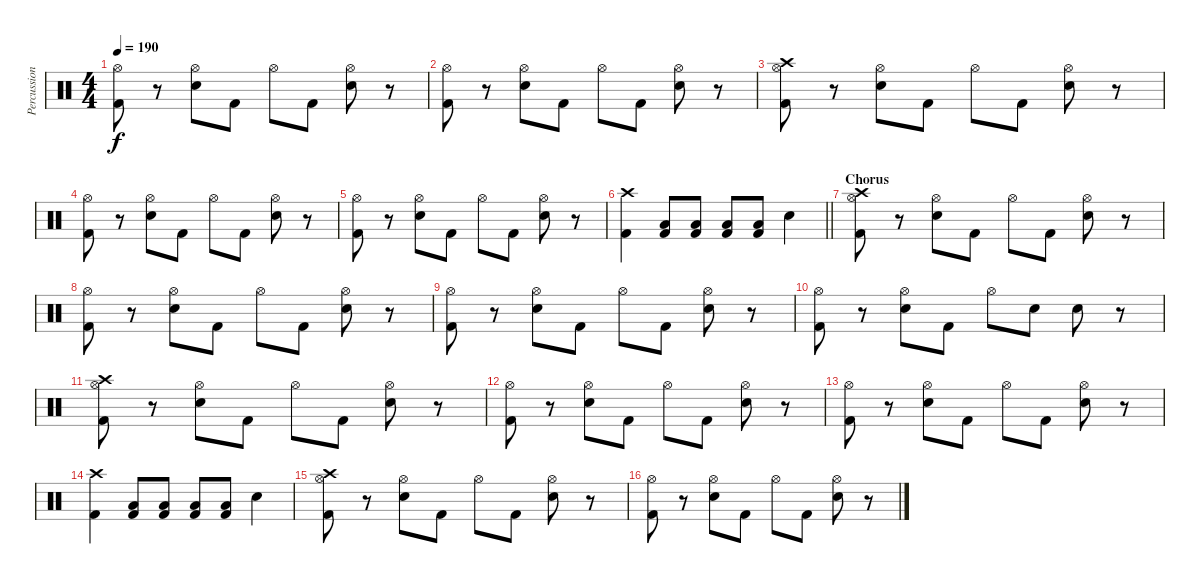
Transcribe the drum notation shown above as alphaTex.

\track ("Percussion" "Percussion") {instrument percussion}
\staff {score}
\articulation defaults
\ts (4 4)
\tempo 190
\clef neutral
\ks c
("Hi-Hat (open)" "Kick (hit) 2").8{dy f} r.8 ("Hi-Hat (open)" "Snare (hit) 2").8 "Kick (hit) 2".8 "Hi-Hat (open)".8 "Kick (hit) 2".8 ("Hi-Hat (open)" "Snare (hit) 2").8 r.8 |
("Hi-Hat (open)" "Kick (hit) 2").8 r.8 ("Hi-Hat (open)" "Snare (hit) 2").8 "Kick (hit) 2".8 "Hi-Hat (open)".8 "Kick (hit) 2".8 ("Hi-Hat (open)" "Snare (hit) 2").8 r.8 |
("Hi-Hat (open)" "Crash high (hit)" "Kick (hit) 2").8 r.8 ("Hi-Hat (open)" "Snare (hit) 2").8 "Kick (hit) 2".8 "Hi-Hat (open)".8 "Kick (hit) 2".8 ("Hi-Hat (open)" "Snare (hit) 2").8 r.8 |
("Hi-Hat (open)" "Kick (hit) 2").8 r.8 ("Hi-Hat (open)" "Snare (hit) 2").8 "Kick (hit) 2".8 "Hi-Hat (open)".8 "Kick (hit) 2".8 ("Hi-Hat (open)" "Snare (hit) 2").8 r.8 |
("Hi-Hat (open)" "Kick (hit) 2").8 r.8 ("Hi-Hat (open)" "Snare (hit) 2").8 "Kick (hit) 2".8 "Hi-Hat (open)".8 "Kick (hit) 2".8 ("Hi-Hat (open)" "Snare (hit) 2").8 r.8 |
\barLineRight lightlight
("Crash high (hit)" "Kick (hit) 2").4 ("Kick (hit) 2" "Low Tom (hit)").8 ("Kick (hit) 2" "Low Tom (hit)").8 ("Kick (hit) 2" "Low Tom (hit)").8 ("Kick (hit) 2" "Low Tom (hit)").8 "Snare (hit) 2".4 |
\section ("" "Chorus")
("Hi-Hat (open)" "Crash high (hit)" "Kick (hit) 2").8 r.8 ("Hi-Hat (open)" "Snare (hit) 2").8 "Kick (hit) 2".8 "Hi-Hat (open)".8 "Kick (hit) 2".8 ("Hi-Hat (open)" "Snare (hit) 2").8 r.8 |
("Hi-Hat (open)" "Kick (hit) 2").8 r.8 ("Hi-Hat (open)" "Snare (hit) 2").8 "Kick (hit) 2".8 "Hi-Hat (open)".8 "Kick (hit) 2".8 ("Hi-Hat (open)" "Snare (hit) 2").8 r.8 |
("Hi-Hat (open)" "Kick (hit) 2").8 r.8 ("Hi-Hat (open)" "Snare (hit) 2").8 "Kick (hit) 2".8 "Hi-Hat (open)".8 "Kick (hit) 2".8 ("Hi-Hat (open)" "Snare (hit) 2").8 r.8 |
("Hi-Hat (open)" "Kick (hit) 2").8 r.8 ("Hi-Hat (open)" "Snare (hit) 2").8 "Kick (hit) 2".8 "Hi-Hat (open)".8 "Snare (hit) 2".8 "Snare (hit) 2".8 r.8 |
("Hi-Hat (open)" "Crash high (hit)" "Kick (hit) 2").8 r.8 ("Hi-Hat (open)" "Snare (hit) 2").8 "Kick (hit) 2".8 "Hi-Hat (open)".8 "Kick (hit) 2".8 ("Hi-Hat (open)" "Snare (hit) 2").8 r.8 |
("Hi-Hat (open)" "Kick (hit) 2").8 r.8 ("Hi-Hat (open)" "Snare (hit) 2").8 "Kick (hit) 2".8 "Hi-Hat (open)".8 "Kick (hit) 2".8 ("Hi-Hat (open)" "Snare (hit) 2").8 r.8 |
("Hi-Hat (open)" "Kick (hit) 2").8 r.8 ("Hi-Hat (open)" "Snare (hit) 2").8 "Kick (hit) 2".8 "Hi-Hat (open)".8 "Kick (hit) 2".8 ("Hi-Hat (open)" "Snare (hit) 2").8 r.8 |
("Crash high (hit)" "Kick (hit) 2").4 ("Kick (hit) 2" "Low Tom (hit)").8 ("Kick (hit) 2" "Low Tom (hit)").8 ("Kick (hit) 2" "Low Tom (hit)").8 ("Kick (hit) 2" "Low Tom (hit)").8 "Snare (hit) 2".4 |
("Hi-Hat (open)" "Crash high (hit)" "Kick (hit) 2").8 r.8 ("Hi-Hat (open)" "Snare (hit) 2").8 "Kick (hit) 2".8 "Hi-Hat (open)".8 "Kick (hit) 2".8 ("Hi-Hat (open)" "Snare (hit) 2").8 r.8 |
("Hi-Hat (open)" "Kick (hit) 2").8 r.8 ("Hi-Hat (open)" "Snare (hit) 2").8 "Kick (hit) 2".8 "Hi-Hat (open)".8 "Kick (hit) 2".8 ("Hi-Hat (open)" "Snare (hit) 2").8 r.8
